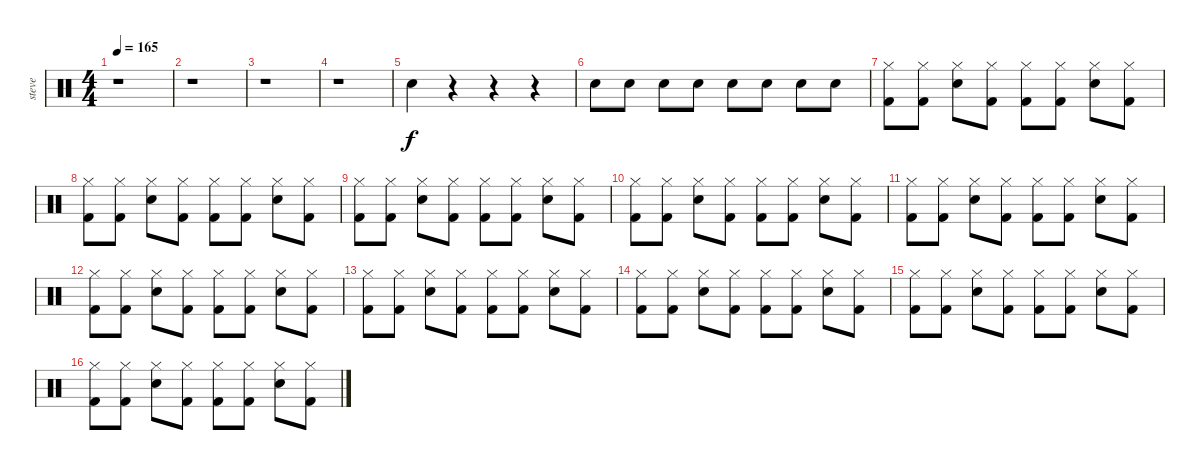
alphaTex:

\track ("steve" "steve") {instrument percussion}
\staff {score}
\articulation defaults
\ts (4 4)
\tempo 165
\clef neutral
\ks c
r.1{dy f} |
r.1 |
r.1 |
r.1 |
"Electric Snare (hit)".4 r.4 r.4 r.4 |
"Electric Snare (hit)".8 "Electric Snare (hit)".8 "Electric Snare (hit)".8 "Electric Snare (hit)".8 "Electric Snare (hit)".8 "Electric Snare (hit)".8 "Electric Snare (hit)".8 "Electric Snare (hit)".8 |
("Hi-Hat (closed)" "Kick (hit) 2").8 ("Hi-Hat (closed)" "Kick (hit) 2").8 ("Hi-Hat (closed)" "Electric Snare (hit)").8 ("Hi-Hat (closed)" "Kick (hit) 2").8 ("Hi-Hat (closed)" "Kick (hit) 2").8 ("Hi-Hat (closed)" "Kick (hit) 2").8 ("Hi-Hat (closed)" "Electric Snare (hit)").8 ("Hi-Hat (closed)" "Kick (hit) 2").8 |
("Hi-Hat (closed)" "Kick (hit) 2").8 ("Hi-Hat (closed)" "Kick (hit) 2").8 ("Hi-Hat (closed)" "Electric Snare (hit)").8 ("Hi-Hat (closed)" "Kick (hit) 2").8 ("Hi-Hat (closed)" "Kick (hit) 2").8 ("Hi-Hat (closed)" "Kick (hit) 2").8 ("Hi-Hat (closed)" "Electric Snare (hit)").8 ("Hi-Hat (closed)" "Kick (hit) 2").8 |
("Hi-Hat (closed)" "Kick (hit) 2").8 ("Hi-Hat (closed)" "Kick (hit) 2").8 ("Hi-Hat (closed)" "Electric Snare (hit)").8 ("Hi-Hat (closed)" "Kick (hit) 2").8 ("Hi-Hat (closed)" "Kick (hit) 2").8 ("Hi-Hat (closed)" "Kick (hit) 2").8 ("Hi-Hat (closed)" "Electric Snare (hit)").8 ("Hi-Hat (closed)" "Kick (hit) 2").8 |
("Hi-Hat (closed)" "Kick (hit) 2").8 ("Hi-Hat (closed)" "Kick (hit) 2").8 ("Hi-Hat (closed)" "Electric Snare (hit)").8 ("Hi-Hat (closed)" "Kick (hit) 2").8 ("Hi-Hat (closed)" "Kick (hit) 2").8 ("Hi-Hat (closed)" "Kick (hit) 2").8 ("Hi-Hat (closed)" "Electric Snare (hit)").8 ("Hi-Hat (closed)" "Kick (hit) 2").8 |
("Hi-Hat (closed)" "Kick (hit) 2").8 ("Hi-Hat (closed)" "Kick (hit) 2").8 ("Hi-Hat (closed)" "Electric Snare (hit)").8 ("Hi-Hat (closed)" "Kick (hit) 2").8 ("Hi-Hat (closed)" "Kick (hit) 2").8 ("Hi-Hat (closed)" "Kick (hit) 2").8 ("Hi-Hat (closed)" "Electric Snare (hit)").8 ("Hi-Hat (closed)" "Kick (hit) 2").8 |
("Hi-Hat (closed)" "Kick (hit) 2").8 ("Hi-Hat (closed)" "Kick (hit) 2").8 ("Hi-Hat (closed)" "Electric Snare (hit)").8 ("Hi-Hat (closed)" "Kick (hit) 2").8 ("Hi-Hat (closed)" "Kick (hit) 2").8 ("Hi-Hat (closed)" "Kick (hit) 2").8 ("Hi-Hat (closed)" "Electric Snare (hit)").8 ("Hi-Hat (closed)" "Kick (hit) 2").8 |
("Hi-Hat (closed)" "Kick (hit) 2").8 ("Hi-Hat (closed)" "Kick (hit) 2").8 ("Hi-Hat (closed)" "Electric Snare (hit)").8 ("Hi-Hat (closed)" "Kick (hit) 2").8 ("Hi-Hat (closed)" "Kick (hit) 2").8 ("Hi-Hat (closed)" "Kick (hit) 2").8 ("Hi-Hat (closed)" "Electric Snare (hit)").8 ("Hi-Hat (closed)" "Kick (hit) 2").8 |
("Hi-Hat (closed)" "Kick (hit) 2").8 ("Hi-Hat (closed)" "Kick (hit) 2").8 ("Hi-Hat (closed)" "Electric Snare (hit)").8 ("Hi-Hat (closed)" "Kick (hit) 2").8 ("Hi-Hat (closed)" "Kick (hit) 2").8 ("Hi-Hat (closed)" "Kick (hit) 2").8 ("Hi-Hat (closed)" "Electric Snare (hit)").8 ("Hi-Hat (closed)" "Kick (hit) 2").8 |
("Hi-Hat (closed)" "Kick (hit) 2").8 ("Hi-Hat (closed)" "Kick (hit) 2").8 ("Hi-Hat (closed)" "Electric Snare (hit)").8 ("Hi-Hat (closed)" "Kick (hit) 2").8 ("Hi-Hat (closed)" "Kick (hit) 2").8 ("Hi-Hat (closed)" "Kick (hit) 2").8 ("Hi-Hat (closed)" "Electric Snare (hit)").8 ("Hi-Hat (closed)" "Kick (hit) 2").8 |
("Hi-Hat (closed)" "Kick (hit) 2").8 ("Hi-Hat (closed)" "Kick (hit) 2").8 ("Hi-Hat (closed)" "Electric Snare (hit)").8 ("Hi-Hat (closed)" "Kick (hit) 2").8 ("Hi-Hat (closed)" "Kick (hit) 2").8 ("Hi-Hat (closed)" "Kick (hit) 2").8 ("Hi-Hat (closed)" "Electric Snare (hit)").8 ("Hi-Hat (closed)" "Kick (hit) 2").8
